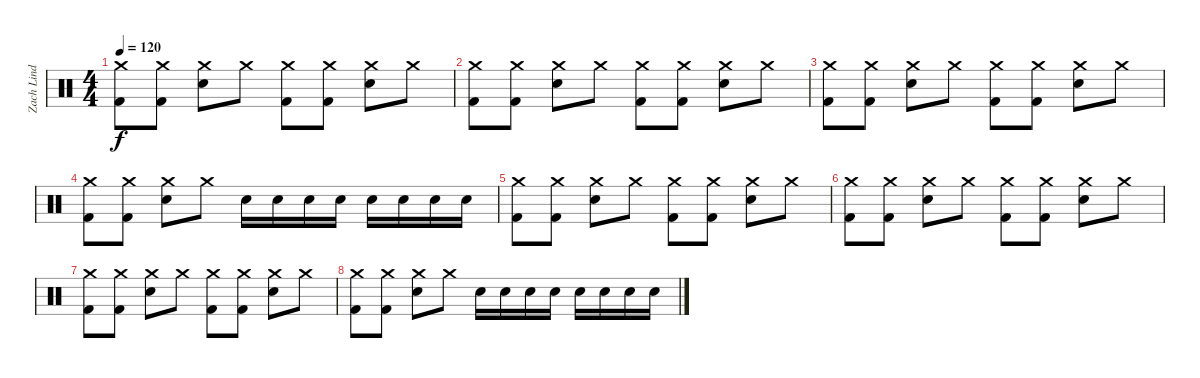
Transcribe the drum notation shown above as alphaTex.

\track ("Zach Lind  (Drums)" "Zach Lind ") {instrument percussion}
\staff {score}
\articulation defaults
\ts (4 4)
\tempo 120
\clef neutral
\ks c
("Crash medium (hit)" "Kick (hit) 2").8{dy f} ("Crash medium (hit)" "Kick (hit) 2").8 ("Crash medium (hit)" "Electric Snare (hit)").8 "Crash medium (hit)".8 ("Crash medium (hit)" "Kick (hit) 2").8 ("Crash medium (hit)" "Kick (hit) 2").8 ("Crash medium (hit)" "Electric Snare (hit)").8 "Crash medium (hit)".8 |
("Crash medium (hit)" "Kick (hit) 2").8 ("Crash medium (hit)" "Kick (hit) 2").8 ("Crash medium (hit)" "Electric Snare (hit)").8 "Crash medium (hit)".8 ("Crash medium (hit)" "Kick (hit) 2").8 ("Crash medium (hit)" "Kick (hit) 2").8 ("Crash medium (hit)" "Electric Snare (hit)").8 "Crash medium (hit)".8 |
("Crash medium (hit)" "Kick (hit) 2").8 ("Crash medium (hit)" "Kick (hit) 2").8 ("Crash medium (hit)" "Electric Snare (hit)").8 "Crash medium (hit)".8 ("Crash medium (hit)" "Kick (hit) 2").8 ("Crash medium (hit)" "Kick (hit) 2").8 ("Crash medium (hit)" "Electric Snare (hit)").8 "Crash medium (hit)".8 |
("Crash medium (hit)" "Kick (hit) 2").8 ("Crash medium (hit)" "Kick (hit) 2").8 ("Crash medium (hit)" "Electric Snare (hit)").8 "Crash medium (hit)".8 "Electric Snare (hit)".16 "Electric Snare (hit)".16 "Electric Snare (hit)".16 "Electric Snare (hit)".16 "Electric Snare (hit)".16 "Electric Snare (hit)".16 "Electric Snare (hit)".16 "Electric Snare (hit)".16 |
("Crash medium (hit)" "Kick (hit) 2").8 ("Crash medium (hit)" "Kick (hit) 2").8 ("Crash medium (hit)" "Electric Snare (hit)").8 "Crash medium (hit)".8 ("Crash medium (hit)" "Kick (hit) 2").8 ("Crash medium (hit)" "Kick (hit) 2").8 ("Crash medium (hit)" "Electric Snare (hit)").8 "Crash medium (hit)".8 |
("Crash medium (hit)" "Kick (hit) 2").8 ("Crash medium (hit)" "Kick (hit) 2").8 ("Crash medium (hit)" "Electric Snare (hit)").8 "Crash medium (hit)".8 ("Crash medium (hit)" "Kick (hit) 2").8 ("Crash medium (hit)" "Kick (hit) 2").8 ("Crash medium (hit)" "Electric Snare (hit)").8 "Crash medium (hit)".8 |
("Crash medium (hit)" "Kick (hit) 2").8 ("Crash medium (hit)" "Kick (hit) 2").8 ("Crash medium (hit)" "Electric Snare (hit)").8 "Crash medium (hit)".8 ("Crash medium (hit)" "Kick (hit) 2").8 ("Crash medium (hit)" "Kick (hit) 2").8 ("Crash medium (hit)" "Electric Snare (hit)").8 "Crash medium (hit)".8 |
("Crash medium (hit)" "Kick (hit) 2").8 ("Crash medium (hit)" "Kick (hit) 2").8 ("Crash medium (hit)" "Electric Snare (hit)").8 "Crash medium (hit)".8 "Electric Snare (hit)".16 "Electric Snare (hit)".16 "Electric Snare (hit)".16 "Electric Snare (hit)".16 "Electric Snare (hit)".16 "Electric Snare (hit)".16 "Electric Snare (hit)".16 "Electric Snare (hit)".16
